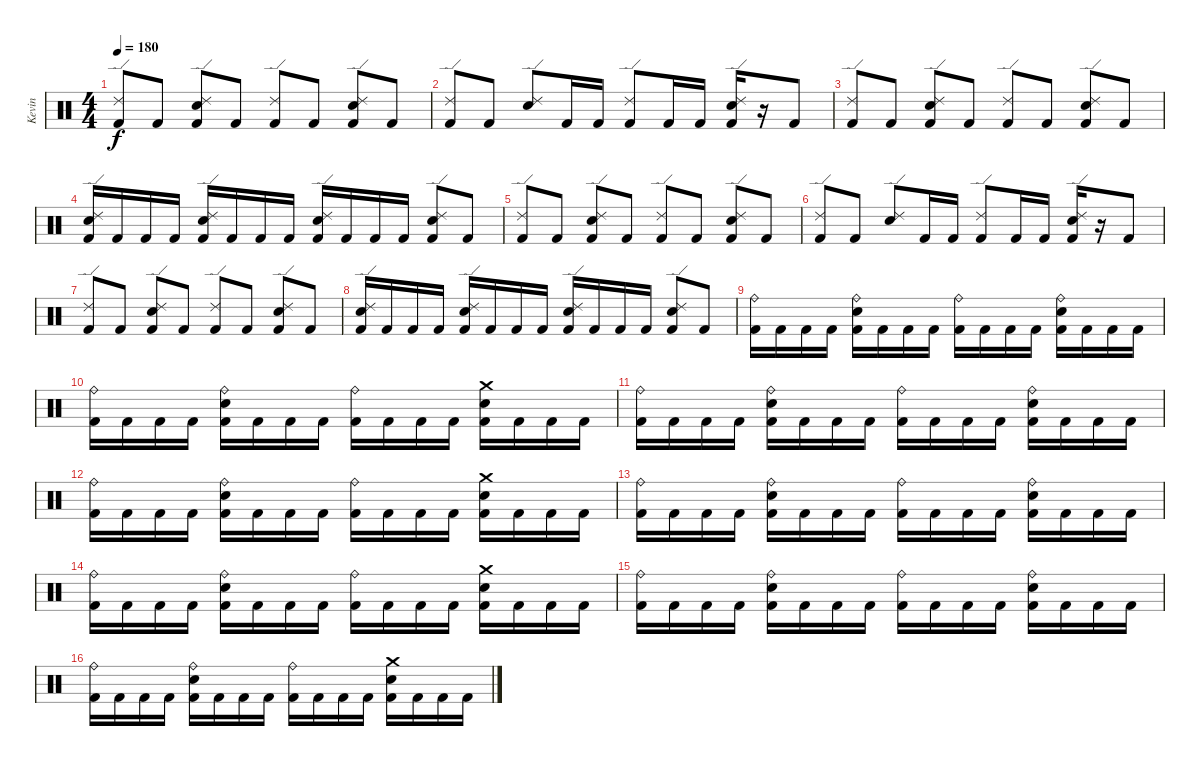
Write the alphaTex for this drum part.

\track ("Kevin" "Kevin") {instrument percussion}
\staff {score}
\articulation defaults
\ts (4 4)
\tempo 180
\clef neutral
\ks c
("Ride (edge) 2" "Kick (hit) 2").8{dy f} "Kick (hit) 2".8 ("Ride (edge) 2" "Electric Snare (hit)" "Kick (hit) 2").8 "Kick (hit) 2".8 ("Ride (edge) 2" "Kick (hit) 2").8 "Kick (hit) 2".8 ("Ride (edge) 2" "Electric Snare (hit)" "Kick (hit) 2").8 "Kick (hit) 2".8 |
("Ride (edge) 2" "Kick (hit) 2").8 "Kick (hit) 2".8 ("Ride (edge) 2" "Electric Snare (hit)").8 "Kick (hit) 2".16 "Kick (hit) 2".16 ("Ride (edge) 2" "Kick (hit) 2").8 "Kick (hit) 2".16 "Kick (hit) 2".16 ("Ride (edge) 2" "Electric Snare (hit)" "Kick (hit) 2").16 r.16 "Kick (hit) 2".8 |
("Ride (edge) 2" "Kick (hit) 2").8 "Kick (hit) 2".8 ("Ride (edge) 2" "Electric Snare (hit)" "Kick (hit) 2").8 "Kick (hit) 2".8 ("Ride (edge) 2" "Kick (hit) 2").8 "Kick (hit) 2".8 ("Ride (edge) 2" "Electric Snare (hit)" "Kick (hit) 2").8 "Kick (hit) 2".8 |
("Ride (edge) 2" "Electric Snare (hit)" "Kick (hit) 2").16 "Kick (hit) 2".16 "Kick (hit) 2".16 "Kick (hit) 2".16 ("Ride (edge) 2" "Electric Snare (hit)" "Kick (hit) 2").16 "Kick (hit) 2".16 "Kick (hit) 2".16 "Kick (hit) 2".16 ("Ride (edge) 2" "Electric Snare (hit)" "Kick (hit) 2").16 "Kick (hit) 2".16 "Kick (hit) 2".16 "Kick (hit) 2".16 ("Ride (edge) 2" "Electric Snare (hit)" "Kick (hit) 2").8 "Kick (hit) 2".8 |
("Ride (edge) 2" "Kick (hit) 2").8 "Kick (hit) 2".8 ("Ride (edge) 2" "Electric Snare (hit)" "Kick (hit) 2").8 "Kick (hit) 2".8 ("Ride (edge) 2" "Kick (hit) 2").8 "Kick (hit) 2".8 ("Ride (edge) 2" "Electric Snare (hit)" "Kick (hit) 2").8 "Kick (hit) 2".8 |
("Ride (edge) 2" "Kick (hit) 2").8 "Kick (hit) 2".8 ("Ride (edge) 2" "Electric Snare (hit)").8 "Kick (hit) 2".16 "Kick (hit) 2".16 ("Ride (edge) 2" "Kick (hit) 2").8 "Kick (hit) 2".16 "Kick (hit) 2".16 ("Ride (edge) 2" "Electric Snare (hit)" "Kick (hit) 2").16 r.16 "Kick (hit) 2".8 |
("Ride (edge) 2" "Kick (hit) 2").8 "Kick (hit) 2".8 ("Ride (edge) 2" "Electric Snare (hit)" "Kick (hit) 2").8 "Kick (hit) 2".8 ("Ride (edge) 2" "Kick (hit) 2").8 "Kick (hit) 2".8 ("Ride (edge) 2" "Electric Snare (hit)" "Kick (hit) 2").8 "Kick (hit) 2".8 |
("Ride (edge) 2" "Electric Snare (hit)" "Kick (hit) 2").16 "Kick (hit) 2".16 "Kick (hit) 2".16 "Kick (hit) 2".16 ("Ride (edge) 2" "Electric Snare (hit)" "Kick (hit) 2").16 "Kick (hit) 2".16 "Kick (hit) 2".16 "Kick (hit) 2".16 ("Ride (edge) 2" "Electric Snare (hit)" "Kick (hit) 2").16 "Kick (hit) 2".16 "Kick (hit) 2".16 "Kick (hit) 2".16 ("Ride (edge) 2" "Electric Snare (hit)" "Kick (hit) 2").8 "Kick (hit) 2".8 |
("Ride (bell)" "Kick (hit) 2").16 "Kick (hit) 2".16 "Kick (hit) 2".16 "Kick (hit) 2".16 ("Ride (bell)" "Electric Snare (hit)" "Kick (hit) 2").16 "Kick (hit) 2".16 "Kick (hit) 2".16 "Kick (hit) 2".16 ("Ride (bell)" "Kick (hit) 2").16 "Kick (hit) 2".16 "Kick (hit) 2".16 "Kick (hit) 2".16 ("Ride (bell)" "Electric Snare (hit)" "Kick (hit) 2").16 "Kick (hit) 2".16 "Kick (hit) 2".16 "Kick (hit) 2".16 |
("Ride (bell)" "Kick (hit) 2").16 "Kick (hit) 2".16 "Kick (hit) 2".16 "Kick (hit) 2".16 ("Ride (bell)" "Electric Snare (hit)" "Kick (hit) 2").16 "Kick (hit) 2".16 "Kick (hit) 2".16 "Kick (hit) 2".16 ("Ride (bell)" "Kick (hit) 2").16 "Kick (hit) 2".16 "Kick (hit) 2".16 "Kick (hit) 2".16 ("Crash medium (hit)" "Electric Snare (hit)" "Kick (hit) 2").16 "Kick (hit) 2".16 "Kick (hit) 2".16 "Kick (hit) 2".16 |
("Ride (bell)" "Kick (hit) 2").16 "Kick (hit) 2".16 "Kick (hit) 2".16 "Kick (hit) 2".16 ("Ride (bell)" "Electric Snare (hit)" "Kick (hit) 2").16 "Kick (hit) 2".16 "Kick (hit) 2".16 "Kick (hit) 2".16 ("Ride (bell)" "Kick (hit) 2").16 "Kick (hit) 2".16 "Kick (hit) 2".16 "Kick (hit) 2".16 ("Ride (bell)" "Electric Snare (hit)" "Kick (hit) 2").16 "Kick (hit) 2".16 "Kick (hit) 2".16 "Kick (hit) 2".16 |
("Ride (bell)" "Kick (hit) 2").16 "Kick (hit) 2".16 "Kick (hit) 2".16 "Kick (hit) 2".16 ("Ride (bell)" "Electric Snare (hit)" "Kick (hit) 2").16 "Kick (hit) 2".16 "Kick (hit) 2".16 "Kick (hit) 2".16 ("Ride (bell)" "Kick (hit) 2").16 "Kick (hit) 2".16 "Kick (hit) 2".16 "Kick (hit) 2".16 ("Crash medium (hit)" "Electric Snare (hit)" "Kick (hit) 2").16 "Kick (hit) 2".16 "Kick (hit) 2".16 "Kick (hit) 2".16 |
("Ride (bell)" "Kick (hit) 2").16 "Kick (hit) 2".16 "Kick (hit) 2".16 "Kick (hit) 2".16 ("Ride (bell)" "Electric Snare (hit)" "Kick (hit) 2").16 "Kick (hit) 2".16 "Kick (hit) 2".16 "Kick (hit) 2".16 ("Ride (bell)" "Kick (hit) 2").16 "Kick (hit) 2".16 "Kick (hit) 2".16 "Kick (hit) 2".16 ("Ride (bell)" "Electric Snare (hit)" "Kick (hit) 2").16 "Kick (hit) 2".16 "Kick (hit) 2".16 "Kick (hit) 2".16 |
("Ride (bell)" "Kick (hit) 2").16 "Kick (hit) 2".16 "Kick (hit) 2".16 "Kick (hit) 2".16 ("Ride (bell)" "Electric Snare (hit)" "Kick (hit) 2").16 "Kick (hit) 2".16 "Kick (hit) 2".16 "Kick (hit) 2".16 ("Ride (bell)" "Kick (hit) 2").16 "Kick (hit) 2".16 "Kick (hit) 2".16 "Kick (hit) 2".16 ("Crash medium (hit)" "Electric Snare (hit)" "Kick (hit) 2").16 "Kick (hit) 2".16 "Kick (hit) 2".16 "Kick (hit) 2".16 |
("Ride (bell)" "Kick (hit) 2").16 "Kick (hit) 2".16 "Kick (hit) 2".16 "Kick (hit) 2".16 ("Ride (bell)" "Electric Snare (hit)" "Kick (hit) 2").16 "Kick (hit) 2".16 "Kick (hit) 2".16 "Kick (hit) 2".16 ("Ride (bell)" "Kick (hit) 2").16 "Kick (hit) 2".16 "Kick (hit) 2".16 "Kick (hit) 2".16 ("Ride (bell)" "Electric Snare (hit)" "Kick (hit) 2").16 "Kick (hit) 2".16 "Kick (hit) 2".16 "Kick (hit) 2".16 |
("Ride (bell)" "Kick (hit) 2").16 "Kick (hit) 2".16 "Kick (hit) 2".16 "Kick (hit) 2".16 ("Ride (bell)" "Electric Snare (hit)" "Kick (hit) 2").16 "Kick (hit) 2".16 "Kick (hit) 2".16 "Kick (hit) 2".16 ("Ride (bell)" "Kick (hit) 2").16 "Kick (hit) 2".16 "Kick (hit) 2".16 "Kick (hit) 2".16 ("Crash medium (hit)" "Electric Snare (hit)" "Kick (hit) 2").16 "Kick (hit) 2".16 "Kick (hit) 2".16 "Kick (hit) 2".16
